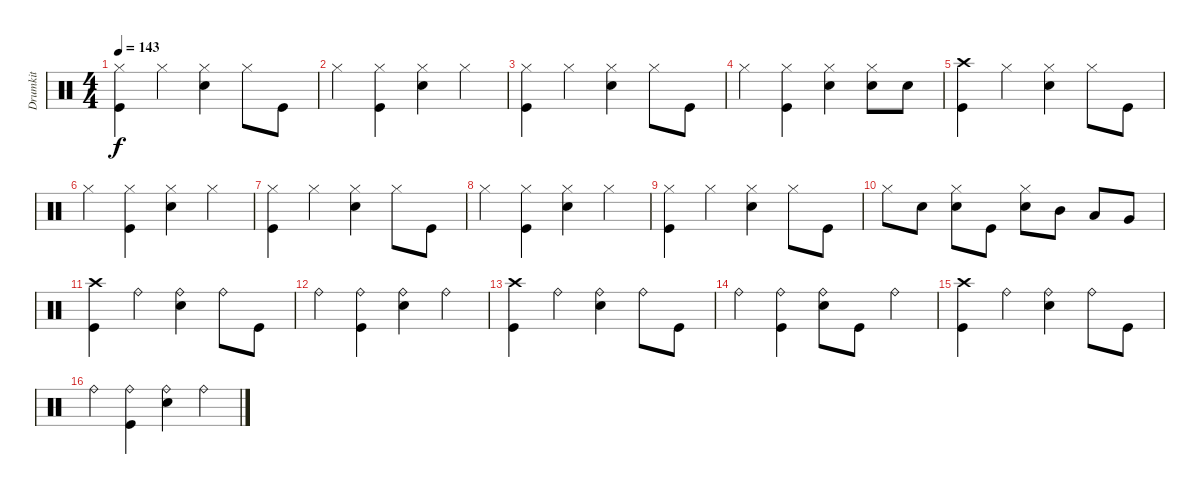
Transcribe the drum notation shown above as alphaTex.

\track ("Drumkit" "Drumkit") {instrument percussion}
\staff {score}
\articulation defaults
\ts (4 4)
\tempo 143
\clef neutral
\ks c
("Kick (hit)" "Hi-Hat (closed)").4{dy f} "Hi-Hat (closed)".4 ("Hi-Hat (closed)" "Snare (hit) 2").4 "Hi-Hat (closed)".8 "Kick (hit)".8 |
"Hi-Hat (closed)".4 ("Hi-Hat (closed)" "Kick (hit)").4 ("Hi-Hat (closed)" "Snare (hit) 2").4 "Hi-Hat (closed)".4 |
("Kick (hit)" "Hi-Hat (closed)").4 "Hi-Hat (closed)".4 ("Hi-Hat (closed)" "Snare (hit) 2").4 "Hi-Hat (closed)".8 "Kick (hit)".8 |
"Hi-Hat (closed)".4 ("Hi-Hat (closed)" "Kick (hit)").4 ("Hi-Hat (closed)" "Snare (hit) 2").4 ("Hi-Hat (closed)" "Snare (hit) 2").8 "Snare (hit) 2".8 |
("Crash high (hit)" "Kick (hit)").4 "Hi-Hat (closed)".4 ("Hi-Hat (closed)" "Snare (hit) 2").4 "Hi-Hat (closed)".8 "Kick (hit)".8 |
"Hi-Hat (closed)".4 ("Hi-Hat (closed)" "Kick (hit)").4 ("Hi-Hat (closed)" "Snare (hit) 2").4 "Hi-Hat (closed)".4 |
("Kick (hit)" "Hi-Hat (closed)").4 "Hi-Hat (closed)".4 ("Hi-Hat (closed)" "Snare (hit) 2").4 "Hi-Hat (closed)".8 "Kick (hit)".8 |
"Hi-Hat (closed)".4 ("Hi-Hat (closed)" "Kick (hit)").4 ("Hi-Hat (closed)" "Snare (hit) 2").4 "Hi-Hat (closed)".4 |
("Kick (hit)" "Hi-Hat (closed)").4 "Hi-Hat (closed)".4 ("Hi-Hat (closed)" "Snare (hit) 2").4 "Hi-Hat (closed)".8 "Kick (hit)".8 |
"Hi-Hat (closed)".8 "Snare (hit) 2".8 ("Snare (hit) 2" "Hi-Hat (closed)").8 "Kick (hit)".8 ("Hi-Hat (closed)" "Snare (hit) 2").8 "Mid Tom (hit)".8 "Low Tom (hit)".8 "Very Low Tom (hit)".8 |
("Crash high (hit)" "Kick (hit)").4 "Ride (bell)".4 ("Snare (hit) 2" "Ride (bell)").4 "Ride (bell)".8 "Kick (hit)".8 |
"Ride (bell)".4 ("Kick (hit)" "Ride (bell)").4 ("Snare (hit) 2" "Ride (bell)").4 "Ride (bell)".4 |
("Crash high (hit)" "Kick (hit)").4 "Ride (bell)".4 ("Snare (hit) 2" "Ride (bell)").4 "Ride (bell)".8 "Kick (hit)".8 |
"Ride (bell)".4 ("Kick (hit)" "Ride (bell)").4 ("Snare (hit) 2" "Ride (bell)").8 "Kick (hit)".8 "Ride (bell)".4 |
("Crash high (hit)" "Kick (hit)").4 "Ride (bell)".4 ("Snare (hit) 2" "Ride (bell)").4 "Ride (bell)".8 "Kick (hit)".8 |
"Ride (bell)".4 ("Kick (hit)" "Ride (bell)").4 ("Snare (hit) 2" "Ride (bell)").4 "Ride (bell)".4
